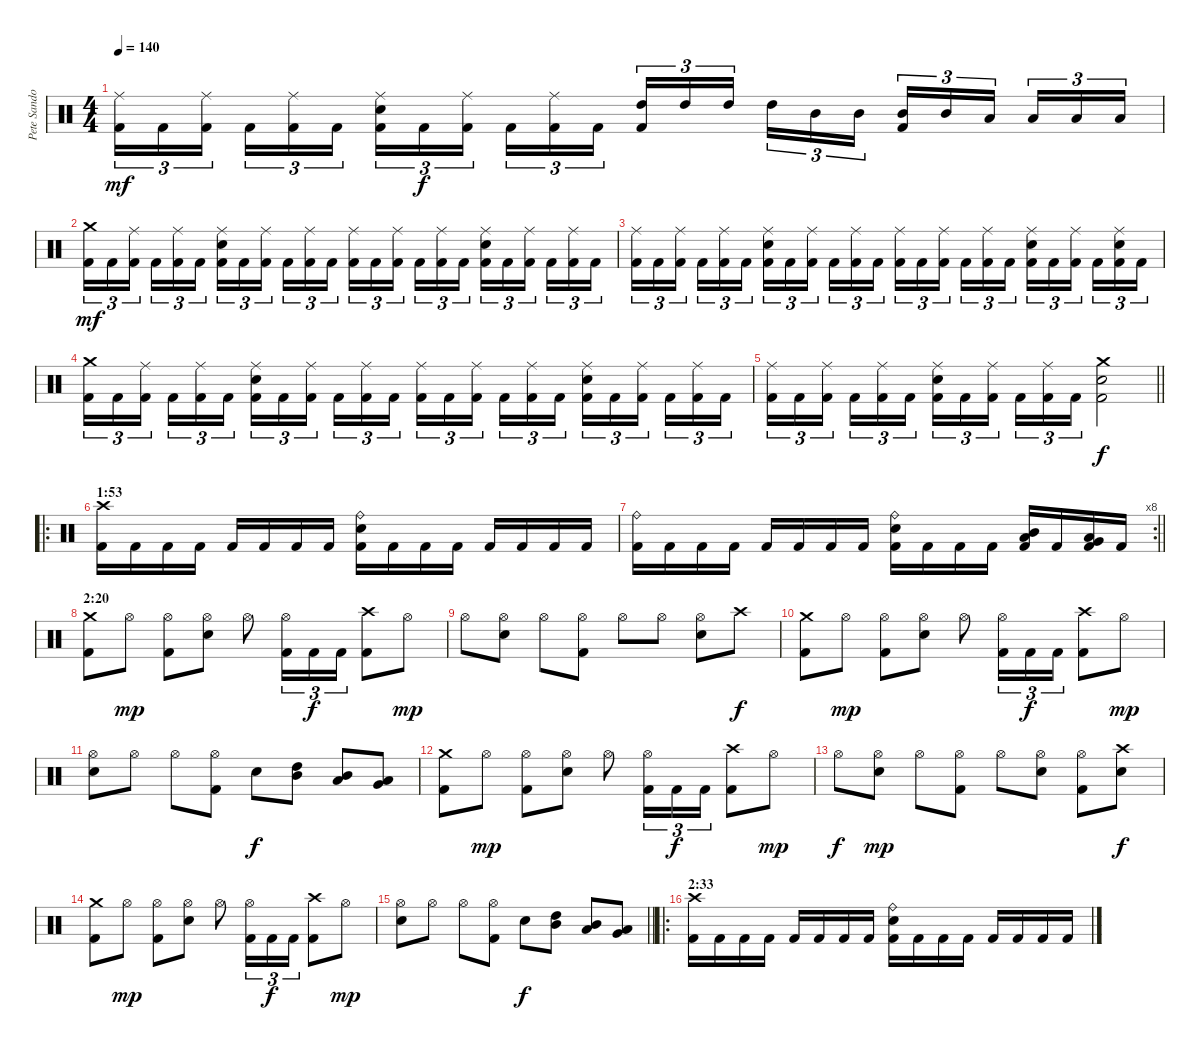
\track ("Pete Sandoval" "Pete Sando") {instrument percussion}
\staff {score}
\articulation defaults
\ts (4 4)
\tempo 140
\clef neutral
\ks c
("Ride (middle)" "Kick (hit) 2").16{tu (3 2) dy mf} "Kick (hit) 2".16{tu (3 2)} ("Ride (middle)" "Kick (hit) 2").16{tu (3 2) beam splitsecondary} "Kick (hit) 2".16{tu (3 2)} ("Ride (middle)" "Kick (hit) 2").16{tu (3 2)} "Kick (hit) 2".16{tu (3 2)} ("Ride (middle)" "Electric Snare (hit)" "Kick (hit) 2").16{tu (3 2)} "Kick (hit) 2".16{tu (3 2) dy f} ("Ride (middle)" "Kick (hit) 2").16{tu (3 2) beam splitsecondary} "Kick (hit) 2".16{tu (3 2)} ("Ride (middle)" "Kick (hit) 2").16{tu (3 2)} "Kick (hit) 2".16{tu (3 2)} ("High Tom (hit)" "Kick (hit) 2").16{tu (3 2)} "High Tom (hit)".16{tu (3 2)} "High Tom (hit)".16{tu (3 2) beam splitsecondary} "High Tom (hit)".16{tu (3 2)} "Mid Tom (hit)".16{tu (3 2)} "Mid Tom (hit)".16{tu (3 2)} ("Mid Tom (hit)" "Kick (hit) 2").16{tu (3 2)} "Mid Tom (hit)".16{tu (3 2)} "Low Tom (hit)".16{tu (3 2) beam splitsecondary} "Low Tom (hit)".16{tu (3 2)} "Low Tom (hit)".16{tu (3 2)} "Low Tom (hit)".16{tu (3 2)} |
("Crash medium (hit)" "Kick (hit) 2").16{tu (3 2) dy mf} "Kick (hit) 2".16{tu (3 2)} ("Ride (middle)" "Kick (hit) 2").16{tu (3 2) beam splitsecondary} "Kick (hit) 2".16{tu (3 2)} ("Ride (middle)" "Kick (hit) 2").16{tu (3 2)} "Kick (hit) 2".16{tu (3 2)} ("Ride (middle)" "Electric Snare (hit)" "Kick (hit) 2").16{tu (3 2)} "Kick (hit) 2".16{tu (3 2)} ("Ride (middle)" "Kick (hit) 2").16{tu (3 2) beam splitsecondary} "Kick (hit) 2".16{tu (3 2)} ("Ride (middle)" "Kick (hit) 2").16{tu (3 2)} "Kick (hit) 2".16{tu (3 2)} ("Ride (middle)" "Kick (hit) 2").16{tu (3 2)} "Kick (hit) 2".16{tu (3 2)} ("Ride (middle)" "Kick (hit) 2").16{tu (3 2) beam splitsecondary} "Kick (hit) 2".16{tu (3 2)} ("Ride (middle)" "Kick (hit) 2").16{tu (3 2)} "Kick (hit) 2".16{tu (3 2)} ("Ride (middle)" "Electric Snare (hit)" "Kick (hit) 2").16{tu (3 2)} "Kick (hit) 2".16{tu (3 2)} ("Ride (middle)" "Kick (hit) 2").16{tu (3 2) beam splitsecondary} "Kick (hit) 2".16{tu (3 2)} ("Ride (middle)" "Kick (hit) 2").16{tu (3 2)} "Kick (hit) 2".16{tu (3 2)} |
("Ride (middle)" "Kick (hit) 2").16{tu (3 2)} "Kick (hit) 2".16{tu (3 2)} ("Ride (middle)" "Kick (hit) 2").16{tu (3 2) beam splitsecondary} "Kick (hit) 2".16{tu (3 2)} ("Ride (middle)" "Kick (hit) 2").16{tu (3 2)} "Kick (hit) 2".16{tu (3 2)} ("Ride (middle)" "Electric Snare (hit)" "Kick (hit) 2").16{tu (3 2)} "Kick (hit) 2".16{tu (3 2)} ("Ride (middle)" "Kick (hit) 2").16{tu (3 2) beam splitsecondary} "Kick (hit) 2".16{tu (3 2)} ("Ride (middle)" "Kick (hit) 2").16{tu (3 2)} "Kick (hit) 2".16{tu (3 2)} ("Ride (middle)" "Kick (hit) 2").16{tu (3 2)} "Kick (hit) 2".16{tu (3 2)} ("Ride (middle)" "Kick (hit) 2").16{tu (3 2) beam splitsecondary} "Kick (hit) 2".16{tu (3 2)} ("Ride (middle)" "Kick (hit) 2").16{tu (3 2)} "Kick (hit) 2".16{tu (3 2)} ("Ride (middle)" "Electric Snare (hit)" "Kick (hit) 2").16{tu (3 2)} "Kick (hit) 2".16{tu (3 2)} ("Ride (middle)" "Kick (hit) 2").16{tu (3 2) beam splitsecondary} "Kick (hit) 2".16{tu (3 2)} ("Ride (middle)" "Electric Snare (hit)" "Kick (hit) 2").16{tu (3 2)} "Kick (hit) 2".16{tu (3 2)} |
("Crash medium (hit)" "Kick (hit) 2").16{tu (3 2)} "Kick (hit) 2".16{tu (3 2)} ("Ride (middle)" "Kick (hit) 2").16{tu (3 2) beam splitsecondary} "Kick (hit) 2".16{tu (3 2)} ("Ride (middle)" "Kick (hit) 2").16{tu (3 2)} "Kick (hit) 2".16{tu (3 2)} ("Ride (middle)" "Electric Snare (hit)" "Kick (hit) 2").16{tu (3 2)} "Kick (hit) 2".16{tu (3 2)} ("Ride (middle)" "Kick (hit) 2").16{tu (3 2) beam splitsecondary} "Kick (hit) 2".16{tu (3 2)} ("Ride (middle)" "Kick (hit) 2").16{tu (3 2)} "Kick (hit) 2".16{tu (3 2)} ("Ride (middle)" "Kick (hit) 2").16{tu (3 2)} "Kick (hit) 2".16{tu (3 2)} ("Ride (middle)" "Kick (hit) 2").16{tu (3 2) beam splitsecondary} "Kick (hit) 2".16{tu (3 2)} ("Ride (middle)" "Kick (hit) 2").16{tu (3 2)} "Kick (hit) 2".16{tu (3 2)} ("Ride (middle)" "Electric Snare (hit)" "Kick (hit) 2").16{tu (3 2)} "Kick (hit) 2".16{tu (3 2)} ("Ride (middle)" "Kick (hit) 2").16{tu (3 2) beam splitsecondary} "Kick (hit) 2".16{tu (3 2)} ("Ride (middle)" "Kick (hit) 2").16{tu (3 2)} "Kick (hit) 2".16{tu (3 2)} |
\barLineRight lightlight
("Ride (middle)" "Kick (hit) 2").16{tu (3 2)} "Kick (hit) 2".16{tu (3 2)} ("Ride (middle)" "Kick (hit) 2").16{tu (3 2) beam splitsecondary} "Kick (hit) 2".16{tu (3 2)} ("Ride (middle)" "Kick (hit) 2").16{tu (3 2)} "Kick (hit) 2".16{tu (3 2)} ("Ride (middle)" "Electric Snare (hit)" "Kick (hit) 2").16{tu (3 2)} "Kick (hit) 2".16{tu (3 2)} ("Ride (middle)" "Kick (hit) 2").16{tu (3 2) beam splitsecondary} "Kick (hit) 2".16{tu (3 2)} ("Ride (middle)" "Kick (hit) 2").16{tu (3 2)} "Kick (hit) 2".16{tu (3 2)} ("Crash medium (hit)" "Electric Snare (hit)" "Kick (hit) 2").2{dy f} |
\ro
\section ("" "1:53")
("Crash high (hit)" "Kick (hit) 2").16 "Kick (hit) 2".16 "Kick (hit) 2".16 "Kick (hit) 2".16 "Kick (hit) 2".16 "Kick (hit) 2".16 "Kick (hit) 2".16 "Kick (hit) 2".16 ("Ride (bell)" "Electric Snare (hit)" "Kick (hit) 2").16 "Kick (hit) 2".16 "Kick (hit) 2".16 "Kick (hit) 2".16 "Kick (hit) 2".16 "Kick (hit) 2".16 "Kick (hit) 2".16 "Kick (hit) 2".16 |
\rc 8
\barLineRight lightlight
("Ride (bell)" "Kick (hit) 2").16 "Kick (hit) 2".16 "Kick (hit) 2".16 "Kick (hit) 2".16 "Kick (hit) 2".16 "Kick (hit) 2".16 "Kick (hit) 2".16 "Kick (hit) 2".16 ("Ride (bell)" "Electric Snare (hit)" "Kick (hit) 2").16 "Kick (hit) 2".16 "Kick (hit) 2".16 "Kick (hit) 2".16 ("Mid Tom (hit)" "Low Tom (hit)" "Kick (hit) 2").16 "Kick (hit) 2".16 ("Low Tom (hit)" "Very Low Tom (hit)" "Kick (hit) 2").16 "Kick (hit) 2".16 |
\section ("" "2:20")
("Crash medium (hit)" "Kick (hit) 2").8 "Hi-Hat (open)".8{dy mp} ("Hi-Hat (open)" "Kick (hit) 2").8 ("Hi-Hat (open)" "Electric Snare (hit)").8 "Hi-Hat (open)".8 ("Hi-Hat (open)" "Kick (hit) 2").16{tu (3 2)} "Kick (hit) 2".16{tu (3 2) dy f} "Kick (hit) 2".16{tu (3 2)} ("Crash high (hit)" "Kick (hit) 2").8 "Hi-Hat (open)".8{dy mp} |
"Hi-Hat (open)".8 ("Hi-Hat (open)" "Electric Snare (hit)").8 "Hi-Hat (open)".8 ("Hi-Hat (open)" "Kick (hit) 2").8 "Hi-Hat (open)".8 "Hi-Hat (open)".8 ("Hi-Hat (open)" "Electric Snare (hit)").8 "Crash high (hit)".8{dy f} |
("Crash medium (hit)" "Kick (hit) 2").8 "Hi-Hat (open)".8{dy mp} ("Hi-Hat (open)" "Kick (hit) 2").8 ("Hi-Hat (open)" "Electric Snare (hit)").8 "Hi-Hat (open)".8 ("Hi-Hat (open)" "Kick (hit) 2").16{tu (3 2)} "Kick (hit) 2".16{tu (3 2) dy f} "Kick (hit) 2".16{tu (3 2)} ("Crash high (hit)" "Kick (hit) 2").8 "Hi-Hat (open)".8{dy mp} |
("Hi-Hat (open)" "Electric Snare (hit)").8 "Hi-Hat (open)".8 "Hi-Hat (open)".8 ("Hi-Hat (open)" "Kick (hit) 2").8 "Electric Snare (hit)".8{dy f} ("High Tom (hit)" "Mid Tom (hit)").8 ("Mid Tom (hit)" "Low Tom (hit)").8 ("Low Tom (hit)" "Very Low Tom (hit)").8 |
("Crash medium (hit)" "Kick (hit) 2").8 "Hi-Hat (open)".8{dy mp} ("Hi-Hat (open)" "Kick (hit) 2").8 ("Hi-Hat (open)" "Electric Snare (hit)").8 "Hi-Hat (open)".8 ("Hi-Hat (open)" "Kick (hit) 2").16{tu (3 2)} "Kick (hit) 2".16{tu (3 2) dy f} "Kick (hit) 2".16{tu (3 2)} ("Crash high (hit)" "Kick (hit) 2").8 "Hi-Hat (open)".8{dy mp} |
"Hi-Hat (open)".8{dy f} ("Hi-Hat (open)" "Electric Snare (hit)").8{dy mp} "Hi-Hat (open)".8 ("Hi-Hat (open)" "Kick (hit) 2").8 "Hi-Hat (open)".8 ("Hi-Hat (open)" "Electric Snare (hit)").8 ("Hi-Hat (open)" "Kick (hit) 2").8 ("Crash high (hit)" "Electric Snare (hit)").8{dy f} |
("Crash medium (hit)" "Kick (hit) 2").8 "Hi-Hat (open)".8{dy mp} ("Hi-Hat (open)" "Kick (hit) 2").8 ("Hi-Hat (open)" "Electric Snare (hit)").8 "Hi-Hat (open)".8 ("Hi-Hat (open)" "Kick (hit) 2").16{tu (3 2)} "Kick (hit) 2".16{tu (3 2) dy f} "Kick (hit) 2".16{tu (3 2)} ("Crash high (hit)" "Kick (hit) 2").8 "Hi-Hat (open)".8{dy mp} |
\barLineRight lightlight
("Hi-Hat (open)" "Electric Snare (hit)").8 "Hi-Hat (open)".8 "Hi-Hat (open)".8 ("Hi-Hat (open)" "Kick (hit) 2").8 "Electric Snare (hit)".8{dy f} ("High Tom (hit)" "Mid Tom (hit)").8 ("Mid Tom (hit)" "Low Tom (hit)").8 ("Low Tom (hit)" "Very Low Tom (hit)").8 |
\ro
\section ("" "2:33")
("Crash high (hit)" "Kick (hit) 2").16 "Kick (hit) 2".16 "Kick (hit) 2".16 "Kick (hit) 2".16 "Kick (hit) 2".16 "Kick (hit) 2".16 "Kick (hit) 2".16 "Kick (hit) 2".16 ("Ride (bell)" "Electric Snare (hit)" "Kick (hit) 2").16 "Kick (hit) 2".16 "Kick (hit) 2".16 "Kick (hit) 2".16 "Kick (hit) 2".16 "Kick (hit) 2".16 "Kick (hit) 2".16 "Kick (hit) 2".16
